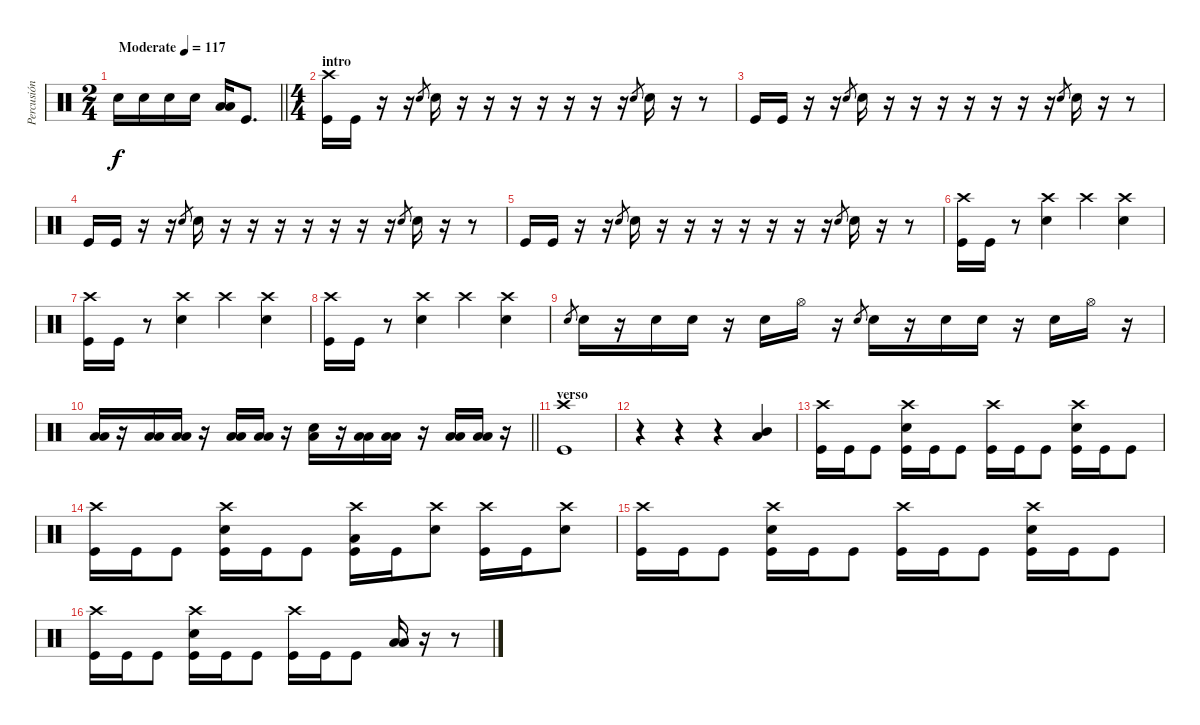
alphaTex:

\track ("Percusión" "Percusión") {instrument percussion}
\staff {score}
\articulation defaults
\ts (2 4)
\tempo (117 "Moderate")
\clef neutral
\barLineRight lightlight
\ks c "Electric Snare (hit)".16{dy f} "Electric Snare (hit)".16 "Electric Snare (hit)".16 "Electric Snare (hit)".16
("Low Tom (hit)" "Low Floor Tom (hit)").16 "Kick (hit)".8{d} |
\ts (4 4)
\section ("" "intro")
\ks aminor
("Crash high (hit)" "Kick (hit)").16 "Kick (hit)".16 r.16 r.16 "Electric Snare (hit)".8{gr} "Electric Snare (hit)".16 r.16 r.16 r.16 r.16 r.16 r.16 r.16 "Electric Snare (hit)".8{gr} "Electric Snare (hit)".16 r.16 r.8 |
"Kick (hit)".16 "Kick (hit)".16 r.16 r.16 "Electric Snare (hit)".8{gr} "Electric Snare (hit)".16 r.16 r.16 r.16 r.16 r.16 r.16 r.16 "Electric Snare (hit)".8{gr} "Electric Snare (hit)".16 r.16 r.8 |
"Kick (hit)".16 "Kick (hit)".16 r.16 r.16 "Electric Snare (hit)".8{gr} "Electric Snare (hit)".16 r.16 r.16 r.16 r.16 r.16 r.16 r.16 "Electric Snare (hit)".8{gr} "Electric Snare (hit)".16 r.16 r.8 |
"Kick (hit)".16 "Kick (hit)".16 r.16 r.16 "Electric Snare (hit)".8{gr} "Electric Snare (hit)".16 r.16 r.16 r.16 r.16 r.16 r.16 r.16 "Electric Snare (hit)".8{gr} "Electric Snare (hit)".16 r.16 r.8 |
("Crash high (hit)" "Kick (hit)").16 "Kick (hit)".16 r.8 ("Crash high (hit)" "Electric Snare (hit)").4 "Crash high (hit)".4 ("Crash high (hit)" "Electric Snare (hit)").4 |
("Crash high (hit)" "Kick (hit)").16 "Kick (hit)".16 r.8 ("Crash high (hit)" "Electric Snare (hit)").4 "Crash high (hit)".4 ("Crash high (hit)" "Electric Snare (hit)").4 |
("Crash high (hit)" "Kick (hit)").16 "Kick (hit)".16 r.8 ("Crash high (hit)" "Electric Snare (hit)").4 "Crash high (hit)".4 ("Crash high (hit)" "Electric Snare (hit)").4 |
"Electric Snare (hit)".8{gr} "Electric Snare (hit)".16 r.16 "Electric Snare (hit)".16 "Electric Snare (hit)".16 r.16 "Electric Snare (hit)".16 "Hi-Hat (open)".16 r.16 "Electric Snare (hit)".8{gr} "Electric Snare (hit)".16 r.16 "Electric Snare (hit)".16 "Electric Snare (hit)".16 r.16 "Electric Snare (hit)".16 "Hi-Hat (open)".16 r.16 |
\barLineRight lightlight
("Low Tom (hit)" "Low Floor Tom (hit)").16 r.16 ("Low Tom (hit)" "Low Floor Tom (hit)").16 ("Low Tom (hit)" "Low Floor Tom (hit)").16 r.16 ("Low Tom (hit)" "Low Floor Tom (hit)").16 ("Low Tom (hit)" "Low Floor Tom (hit)").16 r.16 ("Electric Snare (hit)" "Low Floor Tom (hit)").16 r.16 ("Low Tom (hit)" "Low Floor Tom (hit)").16 ("Low Tom (hit)" "Low Floor Tom (hit)").16 r.16 ("Low Tom (hit)" "Low Floor Tom (hit)").16 ("Low Tom (hit)" "Low Floor Tom (hit)").16 r.16 |
\section ("" "verso")
("Crash high (hit)" "Kick (hit)").1 |
r.4 r.4 r.4 ("Mid Tom (hit)" "Low Floor Tom (hit)").4 |
("Crash high (hit)" "Kick (hit)").16 "Kick (hit)".16 "Kick (hit)".8 ("Crash high (hit)" "Electric Snare (hit)" "Kick (hit)").16 "Kick (hit)".16 "Kick (hit)".8 ("Crash high (hit)" "Kick (hit)").16 "Kick (hit)".16 "Kick (hit)".8 ("Crash high (hit)" "Electric Snare (hit)" "Kick (hit)").16 "Kick (hit)".16 "Kick (hit)".8 |
("Crash high (hit)" "Kick (hit)").16 "Kick (hit)".16 "Kick (hit)".8 ("Crash high (hit)" "Electric Snare (hit)" "Kick (hit)").16 "Kick (hit)".16 "Kick (hit)".8 ("Crash high (hit)" "Low Floor Tom (hit)" "Kick (hit)").16 "Kick (hit)".16 ("Crash high (hit)" "Electric Snare (hit)").8 ("Crash high (hit)" "Kick (hit)").16 "Kick (hit)".16 ("Crash high (hit)" "Electric Snare (hit)").8 |
("Crash high (hit)" "Kick (hit)").16 "Kick (hit)".16 "Kick (hit)".8 ("Crash high (hit)" "Electric Snare (hit)" "Kick (hit)").16 "Kick (hit)".16 "Kick (hit)".8 ("Crash high (hit)" "Kick (hit)").16 "Kick (hit)".16 "Kick (hit)".8 ("Crash high (hit)" "Electric Snare (hit)" "Kick (hit)").16 "Kick (hit)".16 "Kick (hit)".8 |
("Crash high (hit)" "Kick (hit)").16 "Kick (hit)".16 "Kick (hit)".8 ("Crash high (hit)" "Electric Snare (hit)" "Kick (hit)").16 "Kick (hit)".16 "Kick (hit)".8 ("Crash high (hit)" "Kick (hit)").16 "Kick (hit)".16 "Kick (hit)".8 ("Low Tom (hit)" "Low Floor Tom (hit)").16 r.16 r.8
